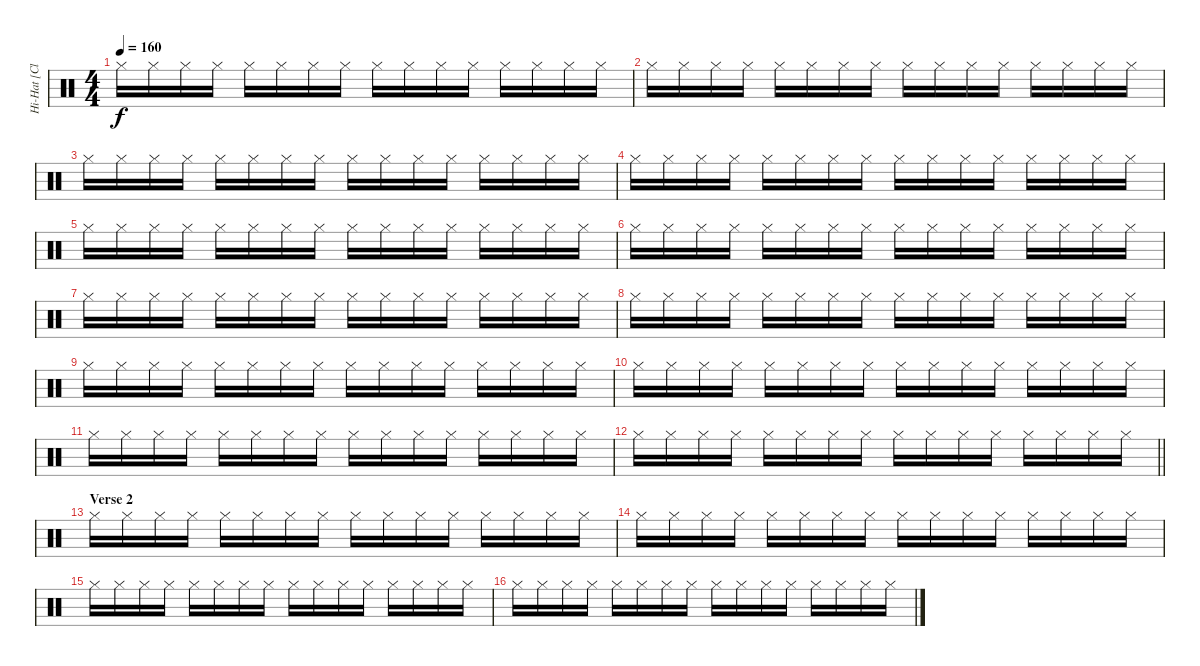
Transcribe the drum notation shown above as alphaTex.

\track ("Hi-Hat [Closed]" "Hi-Hat [Cl") {instrument percussion}
\staff {score}
\articulation defaults
\ts (4 4)
\tempo 160
\clef neutral
\ks c "Hi-Hat (closed)".16{dy f} "Hi-Hat (closed)".16 "Hi-Hat (closed)".16 "Hi-Hat (closed)".16 "Hi-Hat (closed)".16 "Hi-Hat (closed)".16 "Hi-Hat (closed)".16 "Hi-Hat (closed)".16 "Hi-Hat (closed)".16 "Hi-Hat (closed)".16 "Hi-Hat (closed)".16 "Hi-Hat (closed)".16 "Hi-Hat (closed)".16 "Hi-Hat (closed)".16 "Hi-Hat (closed)".16 "Hi-Hat (closed)".16
|
"Hi-Hat (closed)".16 "Hi-Hat (closed)".16 "Hi-Hat (closed)".16 "Hi-Hat (closed)".16 "Hi-Hat (closed)".16 "Hi-Hat (closed)".16 "Hi-Hat (closed)".16 "Hi-Hat (closed)".16 "Hi-Hat (closed)".16 "Hi-Hat (closed)".16 "Hi-Hat (closed)".16 "Hi-Hat (closed)".16 "Hi-Hat (closed)".16 "Hi-Hat (closed)".16 "Hi-Hat (closed)".16 "Hi-Hat (closed)".16 |
"Hi-Hat (closed)".16 "Hi-Hat (closed)".16 "Hi-Hat (closed)".16 "Hi-Hat (closed)".16 "Hi-Hat (closed)".16 "Hi-Hat (closed)".16 "Hi-Hat (closed)".16 "Hi-Hat (closed)".16 "Hi-Hat (closed)".16 "Hi-Hat (closed)".16 "Hi-Hat (closed)".16 "Hi-Hat (closed)".16 "Hi-Hat (closed)".16 "Hi-Hat (closed)".16 "Hi-Hat (closed)".16 "Hi-Hat (closed)".16 |
"Hi-Hat (closed)".16 "Hi-Hat (closed)".16 "Hi-Hat (closed)".16 "Hi-Hat (closed)".16 "Hi-Hat (closed)".16 "Hi-Hat (closed)".16 "Hi-Hat (closed)".16 "Hi-Hat (closed)".16 "Hi-Hat (closed)".16 "Hi-Hat (closed)".16 "Hi-Hat (closed)".16 "Hi-Hat (closed)".16 "Hi-Hat (closed)".16 "Hi-Hat (closed)".16 "Hi-Hat (closed)".16 "Hi-Hat (closed)".16 |
"Hi-Hat (closed)".16 "Hi-Hat (closed)".16 "Hi-Hat (closed)".16 "Hi-Hat (closed)".16 "Hi-Hat (closed)".16 "Hi-Hat (closed)".16 "Hi-Hat (closed)".16 "Hi-Hat (closed)".16 "Hi-Hat (closed)".16 "Hi-Hat (closed)".16 "Hi-Hat (closed)".16 "Hi-Hat (closed)".16 "Hi-Hat (closed)".16 "Hi-Hat (closed)".16 "Hi-Hat (closed)".16 "Hi-Hat (closed)".16 |
"Hi-Hat (closed)".16 "Hi-Hat (closed)".16 "Hi-Hat (closed)".16 "Hi-Hat (closed)".16 "Hi-Hat (closed)".16 "Hi-Hat (closed)".16 "Hi-Hat (closed)".16 "Hi-Hat (closed)".16 "Hi-Hat (closed)".16 "Hi-Hat (closed)".16 "Hi-Hat (closed)".16 "Hi-Hat (closed)".16 "Hi-Hat (closed)".16 "Hi-Hat (closed)".16 "Hi-Hat (closed)".16 "Hi-Hat (closed)".16 |
"Hi-Hat (closed)".16 "Hi-Hat (closed)".16 "Hi-Hat (closed)".16 "Hi-Hat (closed)".16 "Hi-Hat (closed)".16 "Hi-Hat (closed)".16 "Hi-Hat (closed)".16 "Hi-Hat (closed)".16 "Hi-Hat (closed)".16 "Hi-Hat (closed)".16 "Hi-Hat (closed)".16 "Hi-Hat (closed)".16 "Hi-Hat (closed)".16 "Hi-Hat (closed)".16 "Hi-Hat (closed)".16 "Hi-Hat (closed)".16 |
"Hi-Hat (closed)".16 "Hi-Hat (closed)".16 "Hi-Hat (closed)".16 "Hi-Hat (closed)".16 "Hi-Hat (closed)".16 "Hi-Hat (closed)".16 "Hi-Hat (closed)".16 "Hi-Hat (closed)".16 "Hi-Hat (closed)".16 "Hi-Hat (closed)".16 "Hi-Hat (closed)".16 "Hi-Hat (closed)".16 "Hi-Hat (closed)".16 "Hi-Hat (closed)".16 "Hi-Hat (closed)".16 "Hi-Hat (closed)".16 |
"Hi-Hat (closed)".16 "Hi-Hat (closed)".16 "Hi-Hat (closed)".16 "Hi-Hat (closed)".16 "Hi-Hat (closed)".16 "Hi-Hat (closed)".16 "Hi-Hat (closed)".16 "Hi-Hat (closed)".16 "Hi-Hat (closed)".16 "Hi-Hat (closed)".16 "Hi-Hat (closed)".16 "Hi-Hat (closed)".16 "Hi-Hat (closed)".16 "Hi-Hat (closed)".16 "Hi-Hat (closed)".16 "Hi-Hat (closed)".16 |
"Hi-Hat (closed)".16 "Hi-Hat (closed)".16 "Hi-Hat (closed)".16 "Hi-Hat (closed)".16 "Hi-Hat (closed)".16 "Hi-Hat (closed)".16 "Hi-Hat (closed)".16 "Hi-Hat (closed)".16 "Hi-Hat (closed)".16 "Hi-Hat (closed)".16 "Hi-Hat (closed)".16 "Hi-Hat (closed)".16 "Hi-Hat (closed)".16 "Hi-Hat (closed)".16 "Hi-Hat (closed)".16 "Hi-Hat (closed)".16 |
"Hi-Hat (closed)".16 "Hi-Hat (closed)".16 "Hi-Hat (closed)".16 "Hi-Hat (closed)".16 "Hi-Hat (closed)".16 "Hi-Hat (closed)".16 "Hi-Hat (closed)".16 "Hi-Hat (closed)".16 "Hi-Hat (closed)".16 "Hi-Hat (closed)".16 "Hi-Hat (closed)".16 "Hi-Hat (closed)".16 "Hi-Hat (closed)".16 "Hi-Hat (closed)".16 "Hi-Hat (closed)".16 "Hi-Hat (closed)".16 |
\barLineRight lightlight "Hi-Hat (closed)".16 "Hi-Hat (closed)".16 "Hi-Hat (closed)".16 "Hi-Hat (closed)".16 "Hi-Hat (closed)".16 "Hi-Hat (closed)".16 "Hi-Hat (closed)".16 "Hi-Hat (closed)".16 "Hi-Hat (closed)".16 "Hi-Hat (closed)".16 "Hi-Hat (closed)".16 "Hi-Hat (closed)".16 "Hi-Hat (closed)".16 "Hi-Hat (closed)".16 "Hi-Hat (closed)".16 "Hi-Hat (closed)".16
|
\section ("" "Verse 2")
"Hi-Hat (closed)".16 "Hi-Hat (closed)".16 "Hi-Hat (closed)".16 "Hi-Hat (closed)".16 "Hi-Hat (closed)".16 "Hi-Hat (closed)".16 "Hi-Hat (closed)".16 "Hi-Hat (closed)".16 "Hi-Hat (closed)".16 "Hi-Hat (closed)".16 "Hi-Hat (closed)".16 "Hi-Hat (closed)".16 "Hi-Hat (closed)".16 "Hi-Hat (closed)".16 "Hi-Hat (closed)".16 "Hi-Hat (closed)".16 |
"Hi-Hat (closed)".16 "Hi-Hat (closed)".16 "Hi-Hat (closed)".16 "Hi-Hat (closed)".16 "Hi-Hat (closed)".16 "Hi-Hat (closed)".16 "Hi-Hat (closed)".16 "Hi-Hat (closed)".16 "Hi-Hat (closed)".16 "Hi-Hat (closed)".16 "Hi-Hat (closed)".16 "Hi-Hat (closed)".16 "Hi-Hat (closed)".16 "Hi-Hat (closed)".16 "Hi-Hat (closed)".16 "Hi-Hat (closed)".16 |
"Hi-Hat (closed)".16 "Hi-Hat (closed)".16 "Hi-Hat (closed)".16 "Hi-Hat (closed)".16 "Hi-Hat (closed)".16 "Hi-Hat (closed)".16 "Hi-Hat (closed)".16 "Hi-Hat (closed)".16 "Hi-Hat (closed)".16 "Hi-Hat (closed)".16 "Hi-Hat (closed)".16 "Hi-Hat (closed)".16 "Hi-Hat (closed)".16 "Hi-Hat (closed)".16 "Hi-Hat (closed)".16 "Hi-Hat (closed)".16 |
"Hi-Hat (closed)".16 "Hi-Hat (closed)".16 "Hi-Hat (closed)".16 "Hi-Hat (closed)".16 "Hi-Hat (closed)".16 "Hi-Hat (closed)".16 "Hi-Hat (closed)".16 "Hi-Hat (closed)".16 "Hi-Hat (closed)".16 "Hi-Hat (closed)".16 "Hi-Hat (closed)".16 "Hi-Hat (closed)".16 "Hi-Hat (closed)".16 "Hi-Hat (closed)".16 "Hi-Hat (closed)".16 "Hi-Hat (closed)".16
